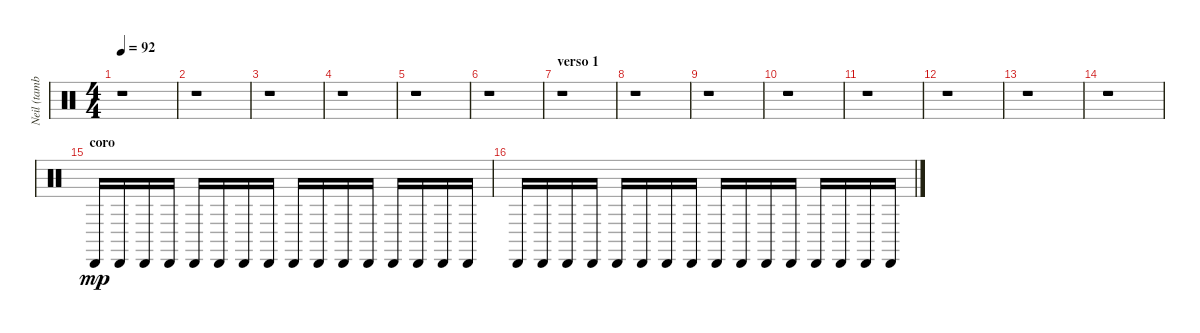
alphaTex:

\track ("Neil (tambourine)" "Neil (tamb") {instrument percussion}
\staff {score}
\articulation defaults
\ts (4 4)
\tempo 92
\clef neutral
\ks c
r.1{dy mp} |
r.1 |
r.1 |
r.1 |
r.1 |
r.1 |
\section ("" "verso 1")
r.1 |
r.1 |
r.1 |
r.1 |
r.1 |
r.1 |
r.1 |
r.1 |
\section ("" "coro")
"Cabasa (hit)".16 "Cabasa (hit)".16 "Cabasa (hit)".16 "Cabasa (hit)".16 "Cabasa (hit)".16 "Cabasa (hit)".16 "Cabasa (hit)".16 "Cabasa (hit)".16 "Cabasa (hit)".16 "Cabasa (hit)".16 "Cabasa (hit)".16 "Cabasa (hit)".16 "Cabasa (hit)".16 "Cabasa (hit)".16 "Cabasa (hit)".16 "Cabasa (hit)".16 |
"Cabasa (hit)".16 "Cabasa (hit)".16 "Cabasa (hit)".16 "Cabasa (hit)".16 "Cabasa (hit)".16 "Cabasa (hit)".16 "Cabasa (hit)".16 "Cabasa (hit)".16 "Cabasa (hit)".16 "Cabasa (hit)".16 "Cabasa (hit)".16 "Cabasa (hit)".16 "Cabasa (hit)".16 "Cabasa (hit)".16 "Cabasa (hit)".16 "Cabasa (hit)".16
